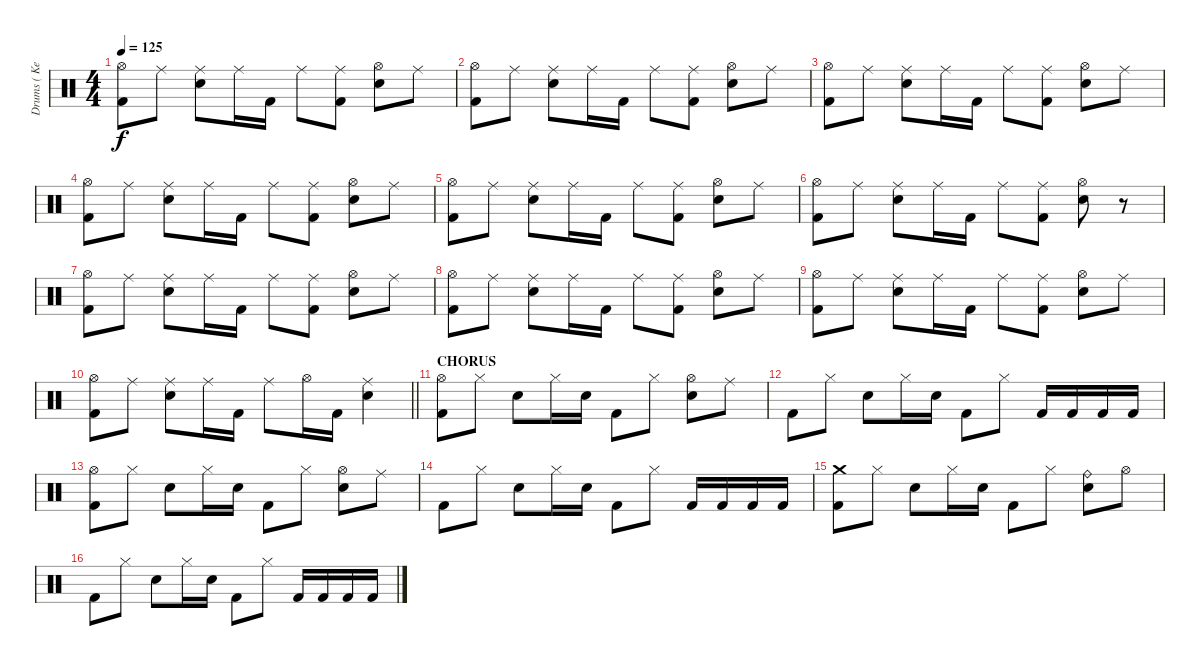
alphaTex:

\track ("Drums ( Ken Jay )" "Drums ( Ke") {instrument percussion}
\staff {score}
\articulation defaults
\ts (4 4)
\tempo 125
\clef neutral
\ks c
("Hi-Hat (open)" "Kick (hit) 2").8{dy f} "Ride (middle)".8 ("Ride (middle)" "Snare (hit) 2").8 "Ride (middle)".16 "Kick (hit) 2".16 "Ride (middle)".8 ("Ride (middle)" "Kick (hit) 2").8 ("Hi-Hat (open)" "Snare (hit) 2").8 "Ride (middle)".8 |
("Hi-Hat (open)" "Kick (hit) 2").8 "Ride (middle)".8 ("Ride (middle)" "Snare (hit) 2").8 "Ride (middle)".16 "Kick (hit) 2".16 "Ride (middle)".8 ("Ride (middle)" "Kick (hit) 2").8 ("Hi-Hat (open)" "Snare (hit) 2").8 "Ride (middle)".8 |
("Hi-Hat (open)" "Kick (hit) 2").8 "Ride (middle)".8 ("Ride (middle)" "Snare (hit) 2").8 "Ride (middle)".16 "Kick (hit) 2".16 "Ride (middle)".8 ("Ride (middle)" "Kick (hit) 2").8 ("Hi-Hat (open)" "Snare (hit) 2").8 "Ride (middle)".8 |
("Hi-Hat (open)" "Kick (hit) 2").8 "Ride (middle)".8 ("Ride (middle)" "Snare (hit) 2").8 "Ride (middle)".16 "Kick (hit) 2".16 "Ride (middle)".8 ("Ride (middle)" "Kick (hit) 2").8 ("Hi-Hat (open)" "Snare (hit) 2").8 "Ride (middle)".8 |
("Hi-Hat (open)" "Kick (hit) 2").8 "Ride (middle)".8 ("Ride (middle)" "Snare (hit) 2").8 "Ride (middle)".16 "Kick (hit) 2".16 "Ride (middle)".8 ("Ride (middle)" "Kick (hit) 2").8 ("Hi-Hat (open)" "Snare (hit) 2").8 "Ride (middle)".8 |
("Hi-Hat (open)" "Kick (hit) 2").8 "Ride (middle)".8 ("Ride (middle)" "Snare (hit) 2").8 "Ride (middle)".16 "Kick (hit) 2".16 "Ride (middle)".8 ("Ride (middle)" "Kick (hit) 2").8 ("Hi-Hat (open)" "Snare (hit) 2").8 r.8 |
("Hi-Hat (open)" "Kick (hit) 2").8 "Ride (middle)".8 ("Ride (middle)" "Snare (hit) 2").8 "Ride (middle)".16 "Kick (hit) 2".16 "Ride (middle)".8 ("Ride (middle)" "Kick (hit) 2").8 ("Hi-Hat (open)" "Snare (hit) 2").8 "Ride (middle)".8 |
("Hi-Hat (open)" "Kick (hit) 2").8 "Ride (middle)".8 ("Ride (middle)" "Snare (hit) 2").8 "Ride (middle)".16 "Kick (hit) 2".16 "Ride (middle)".8 ("Ride (middle)" "Kick (hit) 2").8 ("Hi-Hat (open)" "Snare (hit) 2").8 "Ride (middle)".8 |
("Hi-Hat (open)" "Kick (hit) 2").8 "Ride (middle)".8 ("Ride (middle)" "Snare (hit) 2").8 "Ride (middle)".16 "Kick (hit) 2".16 "Ride (middle)".8 ("Ride (middle)" "Kick (hit) 2").8 ("Hi-Hat (open)" "Snare (hit) 2").8 "Ride (middle)".8 |
\barLineRight lightlight
("Hi-Hat (open)" "Kick (hit) 2").8 "Ride (middle)".8 ("Ride (middle)" "Electric Snare (hit)").8 "Ride (middle)".16 "Kick (hit) 2".16 "Ride (middle)".8 "Hi-Hat (open)".16 "Kick (hit) 2".16 ("Ride (middle)" "Electric Snare (hit)").4 |
\section ("" "CHORUS")
("Hi-Hat (open)" "Kick (hit) 2").8 "Hi-Hat (closed)".8 "Snare (hit) 2".8 "Hi-Hat (closed)".16 "Snare (hit) 2".16 "Kick (hit) 2".8 "Hi-Hat (closed)".8 ("Hi-Hat (open)" "Snare (hit) 2").8 "Ride (middle)".8 |
"Kick (hit) 2".8 "Hi-Hat (closed)".8 "Snare (hit) 2".8 "Hi-Hat (closed)".16 "Snare (hit) 2".16 "Kick (hit) 2".8 "Hi-Hat (closed)".8 "Kick (hit) 2".16 "Kick (hit) 2".16 "Kick (hit) 2".16 "Kick (hit) 2".16 |
("Hi-Hat (open)" "Kick (hit) 2").8 "Hi-Hat (closed)".8 "Snare (hit) 2".8 "Hi-Hat (closed)".16 "Snare (hit) 2".16 "Kick (hit) 2".8 "Hi-Hat (closed)".8 ("Hi-Hat (open)" "Snare (hit) 2").8 "Ride (middle)".8 |
"Kick (hit) 2".8 "Hi-Hat (closed)".8 "Snare (hit) 2".8 "Hi-Hat (closed)".16 "Snare (hit) 2".16 "Kick (hit) 2".8 "Hi-Hat (closed)".8 "Kick (hit) 2".16 "Kick (hit) 2".16 "Kick (hit) 2".16 "Kick (hit) 2".16 |
("Crash medium (hit)" "Kick (hit) 2").8 "Hi-Hat (closed)".8 "Electric Snare (hit)".8 "Hi-Hat (closed)".16 "Electric Snare (hit)".16 "Kick (hit) 2".8 "Hi-Hat (closed)".8 ("Ride (bell)" "Electric Snare (hit)").8 "Hi-Hat (open)".8 |
"Kick (hit) 2".8 "Hi-Hat (closed)".8 "Electric Snare (hit)".8 "Hi-Hat (closed)".16 "Electric Snare (hit)".16 "Kick (hit) 2".8 "Hi-Hat (closed)".8 "Kick (hit) 2".16 "Kick (hit) 2".16 "Kick (hit) 2".16 "Kick (hit) 2".16
